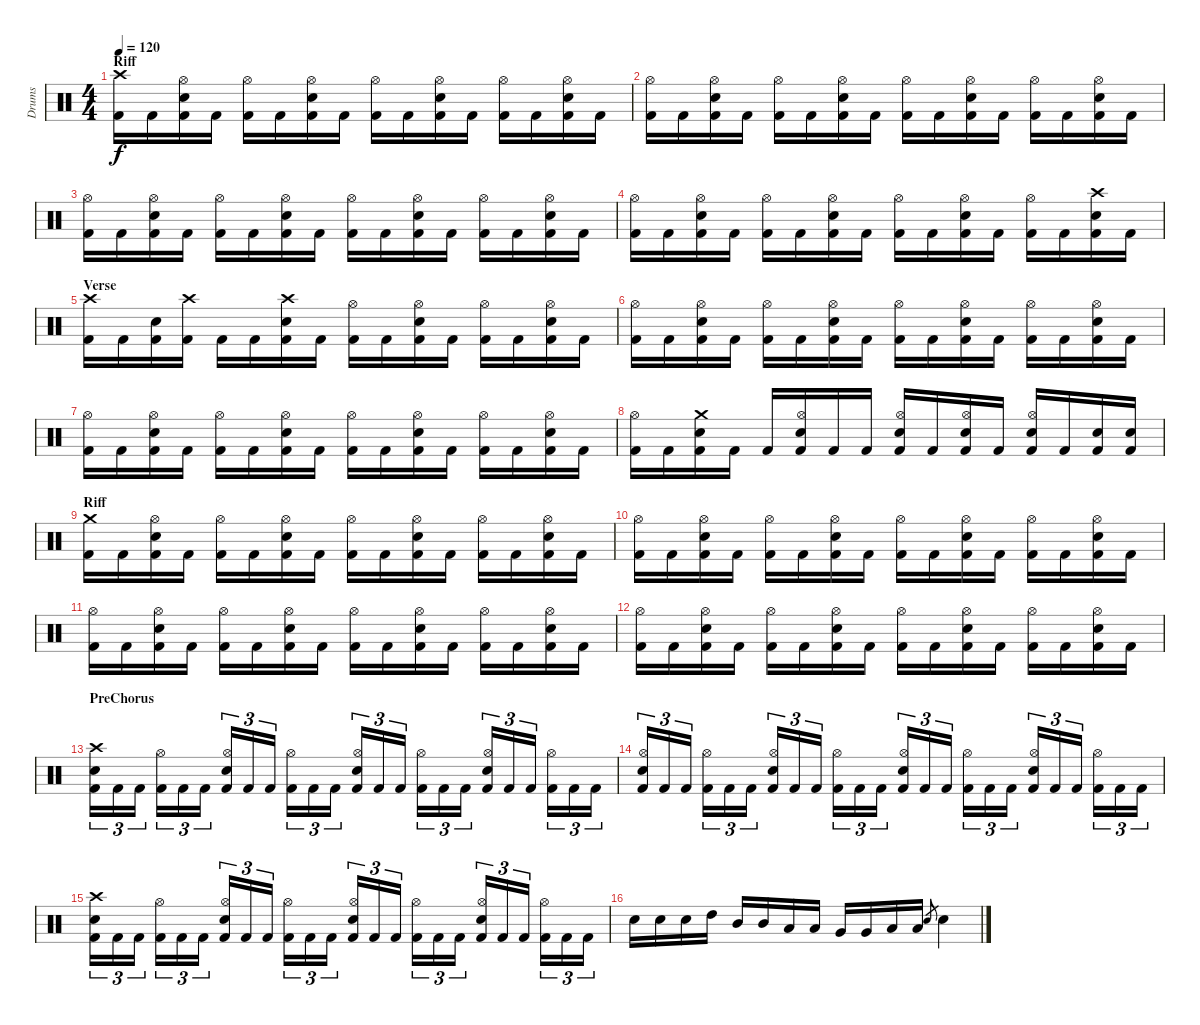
\track ("Drums" "Drums") {instrument percussion}
\staff {score}
\articulation defaults
\ts (4 4)
\section ("" "Riff")
\tempo 120
\clef neutral
\ks c
("Crash high (hit)" "Kick (hit) 2").16{dy f} "Kick (hit) 2".16 ("Hi-Hat (open)" "Snare (hit) 2" "Kick (hit) 2").16 "Kick (hit) 2".16 ("Hi-Hat (open)" "Kick (hit) 2").16 "Kick (hit) 2".16 ("Hi-Hat (open)" "Snare (hit) 2" "Kick (hit) 2").16 "Kick (hit) 2".16 ("Hi-Hat (open)" "Kick (hit) 2").16 "Kick (hit) 2".16 ("Hi-Hat (open)" "Snare (hit) 2" "Kick (hit) 2").16 "Kick (hit) 2".16 ("Hi-Hat (open)" "Kick (hit) 2").16 "Kick (hit) 2".16 ("Hi-Hat (open)" "Snare (hit) 2" "Kick (hit) 2").16 "Kick (hit) 2".16 |
("Hi-Hat (open)" "Kick (hit) 2").16 "Kick (hit) 2".16 ("Hi-Hat (open)" "Snare (hit) 2" "Kick (hit) 2").16 "Kick (hit) 2".16 ("Hi-Hat (open)" "Kick (hit) 2").16 "Kick (hit) 2".16 ("Hi-Hat (open)" "Snare (hit) 2" "Kick (hit) 2").16 "Kick (hit) 2".16 ("Hi-Hat (open)" "Kick (hit) 2").16 "Kick (hit) 2".16 ("Hi-Hat (open)" "Snare (hit) 2" "Kick (hit) 2").16 "Kick (hit) 2".16 ("Hi-Hat (open)" "Kick (hit) 2").16 "Kick (hit) 2".16 ("Hi-Hat (open)" "Snare (hit) 2" "Kick (hit) 2").16 "Kick (hit) 2".16 |
("Hi-Hat (open)" "Kick (hit) 2").16 "Kick (hit) 2".16 ("Hi-Hat (open)" "Snare (hit) 2" "Kick (hit) 2").16 "Kick (hit) 2".16 ("Hi-Hat (open)" "Kick (hit) 2").16 "Kick (hit) 2".16 ("Hi-Hat (open)" "Snare (hit) 2" "Kick (hit) 2").16 "Kick (hit) 2".16 ("Hi-Hat (open)" "Kick (hit) 2").16 "Kick (hit) 2".16 ("Hi-Hat (open)" "Snare (hit) 2" "Kick (hit) 2").16 "Kick (hit) 2".16 ("Hi-Hat (open)" "Kick (hit) 2").16 "Kick (hit) 2".16 ("Hi-Hat (open)" "Snare (hit) 2" "Kick (hit) 2").16 "Kick (hit) 2".16 |
("Hi-Hat (open)" "Kick (hit) 2").16 "Kick (hit) 2".16 ("Hi-Hat (open)" "Snare (hit) 2" "Kick (hit) 2").16 "Kick (hit) 2".16 ("Hi-Hat (open)" "Kick (hit) 2").16 "Kick (hit) 2".16 ("Hi-Hat (open)" "Snare (hit) 2" "Kick (hit) 2").16 "Kick (hit) 2".16 ("Hi-Hat (open)" "Kick (hit) 2").16 "Kick (hit) 2".16 ("Hi-Hat (open)" "Snare (hit) 2" "Kick (hit) 2").16 "Kick (hit) 2".16 ("Hi-Hat (open)" "Kick (hit) 2").16 "Kick (hit) 2".16 ("Crash high (hit)" "Snare (hit) 2" "Kick (hit) 2").16 "Kick (hit) 2".16 |
\section ("" "Verse")
("Crash high (hit)" "Kick (hit) 2").16 "Kick (hit) 2".16 ("Snare (hit) 2" "Kick (hit) 2").16 ("Crash high (hit)" "Kick (hit) 2").16 "Kick (hit) 2".16 "Kick (hit) 2".16 ("Crash high (hit)" "Snare (hit) 2" "Kick (hit) 2").16 "Kick (hit) 2".16 ("Hi-Hat (open)" "Kick (hit) 2").16 "Kick (hit) 2".16 ("Hi-Hat (open)" "Snare (hit) 2" "Kick (hit) 2").16 "Kick (hit) 2".16 ("Hi-Hat (open)" "Kick (hit) 2").16 "Kick (hit) 2".16 ("Hi-Hat (open)" "Snare (hit) 2" "Kick (hit) 2").16 "Kick (hit) 2".16 |
("Hi-Hat (open)" "Kick (hit) 2").16 "Kick (hit) 2".16 ("Hi-Hat (open)" "Snare (hit) 2" "Kick (hit) 2").16 "Kick (hit) 2".16 ("Hi-Hat (open)" "Kick (hit) 2").16 "Kick (hit) 2".16 ("Hi-Hat (open)" "Snare (hit) 2" "Kick (hit) 2").16 "Kick (hit) 2".16 ("Hi-Hat (open)" "Kick (hit) 2").16 "Kick (hit) 2".16 ("Hi-Hat (open)" "Snare (hit) 2" "Kick (hit) 2").16 "Kick (hit) 2".16 ("Hi-Hat (open)" "Kick (hit) 2").16 "Kick (hit) 2".16 ("Hi-Hat (open)" "Snare (hit) 2" "Kick (hit) 2").16 "Kick (hit) 2".16 |
("Hi-Hat (open)" "Kick (hit) 2").16 "Kick (hit) 2".16 ("Hi-Hat (open)" "Snare (hit) 2" "Kick (hit) 2").16 "Kick (hit) 2".16 ("Hi-Hat (open)" "Kick (hit) 2").16 "Kick (hit) 2".16 ("Hi-Hat (open)" "Snare (hit) 2" "Kick (hit) 2").16 "Kick (hit) 2".16 ("Hi-Hat (open)" "Kick (hit) 2").16 "Kick (hit) 2".16 ("Hi-Hat (open)" "Snare (hit) 2" "Kick (hit) 2").16 "Kick (hit) 2".16 ("Hi-Hat (open)" "Kick (hit) 2").16 "Kick (hit) 2".16 ("Hi-Hat (open)" "Snare (hit) 2" "Kick (hit) 2").16 "Kick (hit) 2".16 |
("Hi-Hat (open)" "Kick (hit) 2").16 "Kick (hit) 2".16 ("Crash medium (hit)" "Snare (hit) 2" "Kick (hit) 2").16 "Kick (hit) 2".16 "Kick (hit) 2".16 ("Hi-Hat (open)" "Snare (hit) 2" "Kick (hit) 2").16 "Kick (hit) 2".16 "Kick (hit) 2".16 ("Hi-Hat (open)" "Snare (hit) 2" "Kick (hit) 2").16 "Kick (hit) 2".16 ("Hi-Hat (open)" "Snare (hit) 2" "Kick (hit) 2").16 "Kick (hit) 2".16 ("Hi-Hat (open)" "Snare (hit) 2" "Kick (hit) 2").16 "Kick (hit) 2".16 ("Snare (hit) 2" "Kick (hit) 2").16 ("Snare (hit) 2" "Kick (hit) 2").16 |
\section ("" "Riff")
("Crash medium (hit)" "Kick (hit) 2").16 "Kick (hit) 2".16 ("Hi-Hat (open)" "Snare (hit) 2" "Kick (hit) 2").16 "Kick (hit) 2".16 ("Hi-Hat (open)" "Kick (hit) 2").16 "Kick (hit) 2".16 ("Hi-Hat (open)" "Snare (hit) 2" "Kick (hit) 2").16 "Kick (hit) 2".16 ("Hi-Hat (open)" "Kick (hit) 2").16 "Kick (hit) 2".16 ("Hi-Hat (open)" "Snare (hit) 2" "Kick (hit) 2").16 "Kick (hit) 2".16 ("Hi-Hat (open)" "Kick (hit) 2").16 "Kick (hit) 2".16 ("Hi-Hat (open)" "Snare (hit) 2" "Kick (hit) 2").16 "Kick (hit) 2".16 |
("Hi-Hat (open)" "Kick (hit) 2").16 "Kick (hit) 2".16 ("Hi-Hat (open)" "Snare (hit) 2" "Kick (hit) 2").16 "Kick (hit) 2".16 ("Hi-Hat (open)" "Kick (hit) 2").16 "Kick (hit) 2".16 ("Hi-Hat (open)" "Snare (hit) 2" "Kick (hit) 2").16 "Kick (hit) 2".16 ("Hi-Hat (open)" "Kick (hit) 2").16 "Kick (hit) 2".16 ("Hi-Hat (open)" "Snare (hit) 2" "Kick (hit) 2").16 "Kick (hit) 2".16 ("Hi-Hat (open)" "Kick (hit) 2").16 "Kick (hit) 2".16 ("Hi-Hat (open)" "Snare (hit) 2" "Kick (hit) 2").16 "Kick (hit) 2".16 |
("Hi-Hat (open)" "Kick (hit) 2").16 "Kick (hit) 2".16 ("Hi-Hat (open)" "Snare (hit) 2" "Kick (hit) 2").16 "Kick (hit) 2".16 ("Hi-Hat (open)" "Kick (hit) 2").16 "Kick (hit) 2".16 ("Hi-Hat (open)" "Snare (hit) 2" "Kick (hit) 2").16 "Kick (hit) 2".16 ("Hi-Hat (open)" "Kick (hit) 2").16 "Kick (hit) 2".16 ("Hi-Hat (open)" "Snare (hit) 2" "Kick (hit) 2").16 "Kick (hit) 2".16 ("Hi-Hat (open)" "Kick (hit) 2").16 "Kick (hit) 2".16 ("Hi-Hat (open)" "Snare (hit) 2" "Kick (hit) 2").16 "Kick (hit) 2".16 |
("Hi-Hat (open)" "Kick (hit) 2").16 "Kick (hit) 2".16 ("Hi-Hat (open)" "Snare (hit) 2" "Kick (hit) 2").16 "Kick (hit) 2".16 ("Hi-Hat (open)" "Kick (hit) 2").16 "Kick (hit) 2".16 ("Hi-Hat (open)" "Snare (hit) 2" "Kick (hit) 2").16 "Kick (hit) 2".16 ("Hi-Hat (open)" "Kick (hit) 2").16 "Kick (hit) 2".16 ("Hi-Hat (open)" "Snare (hit) 2" "Kick (hit) 2").16 "Kick (hit) 2".16 ("Hi-Hat (open)" "Kick (hit) 2").16 "Kick (hit) 2".16 ("Hi-Hat (open)" "Snare (hit) 2" "Kick (hit) 2").16 "Kick (hit) 2".16 |
\section ("" "PreChorus")
("Crash high (hit)" "Snare (hit) 2" "Kick (hit) 2").16{tu (3 2)} "Kick (hit) 2".16{tu (3 2)} "Kick (hit) 2".16{tu (3 2)} ("Hi-Hat (open)" "Kick (hit) 2").16{tu (3 2)} "Kick (hit) 2".16{tu (3 2)} "Kick (hit) 2".16{tu (3 2)} ("Hi-Hat (open)" "Snare (hit) 2" "Kick (hit) 2").16{tu (3 2)} "Kick (hit) 2".16{tu (3 2)} "Kick (hit) 2".16{tu (3 2)} ("Hi-Hat (open)" "Kick (hit) 2").16{tu (3 2)} "Kick (hit) 2".16{tu (3 2)} "Kick (hit) 2".16{tu (3 2)} ("Hi-Hat (open)" "Snare (hit) 2" "Kick (hit) 2").16{tu (3 2)} "Kick (hit) 2".16{tu (3 2)} "Kick (hit) 2".16{tu (3 2)} ("Hi-Hat (open)" "Kick (hit) 2").16{tu (3 2)} "Kick (hit) 2".16{tu (3 2)} "Kick (hit) 2".16{tu (3 2)} ("Hi-Hat (open)" "Snare (hit) 2" "Kick (hit) 2").16{tu (3 2)} "Kick (hit) 2".16{tu (3 2)} "Kick (hit) 2".16{tu (3 2)} ("Hi-Hat (open)" "Kick (hit) 2").16{tu (3 2)} "Kick (hit) 2".16{tu (3 2)} "Kick (hit) 2".16{tu (3 2)} |
("Hi-Hat (open)" "Snare (hit) 2" "Kick (hit) 2").16{tu (3 2)} "Kick (hit) 2".16{tu (3 2)} "Kick (hit) 2".16{tu (3 2)} ("Hi-Hat (open)" "Kick (hit) 2").16{tu (3 2)} "Kick (hit) 2".16{tu (3 2)} "Kick (hit) 2".16{tu (3 2)} ("Hi-Hat (open)" "Snare (hit) 2" "Kick (hit) 2").16{tu (3 2)} "Kick (hit) 2".16{tu (3 2)} "Kick (hit) 2".16{tu (3 2)} ("Hi-Hat (open)" "Kick (hit) 2").16{tu (3 2)} "Kick (hit) 2".16{tu (3 2)} "Kick (hit) 2".16{tu (3 2)} ("Hi-Hat (open)" "Snare (hit) 2" "Kick (hit) 2").16{tu (3 2)} "Kick (hit) 2".16{tu (3 2)} "Kick (hit) 2".16{tu (3 2)} ("Hi-Hat (open)" "Kick (hit) 2").16{tu (3 2)} "Kick (hit) 2".16{tu (3 2)} "Kick (hit) 2".16{tu (3 2)} ("Hi-Hat (open)" "Snare (hit) 2" "Kick (hit) 2").16{tu (3 2)} "Kick (hit) 2".16{tu (3 2)} "Kick (hit) 2".16{tu (3 2)} ("Hi-Hat (open)" "Kick (hit) 2").16{tu (3 2)} "Kick (hit) 2".16{tu (3 2)} "Kick (hit) 2".16{tu (3 2)} |
("Crash high (hit)" "Snare (hit) 2" "Kick (hit) 2").16{tu (3 2)} "Kick (hit) 2".16{tu (3 2)} "Kick (hit) 2".16{tu (3 2)} ("Hi-Hat (open)" "Kick (hit) 2").16{tu (3 2)} "Kick (hit) 2".16{tu (3 2)} "Kick (hit) 2".16{tu (3 2)} ("Hi-Hat (open)" "Snare (hit) 2" "Kick (hit) 2").16{tu (3 2)} "Kick (hit) 2".16{tu (3 2)} "Kick (hit) 2".16{tu (3 2)} ("Hi-Hat (open)" "Kick (hit) 2").16{tu (3 2)} "Kick (hit) 2".16{tu (3 2)} "Kick (hit) 2".16{tu (3 2)} ("Hi-Hat (open)" "Snare (hit) 2" "Kick (hit) 2").16{tu (3 2)} "Kick (hit) 2".16{tu (3 2)} "Kick (hit) 2".16{tu (3 2)} ("Hi-Hat (open)" "Kick (hit) 2").16{tu (3 2)} "Kick (hit) 2".16{tu (3 2)} "Kick (hit) 2".16{tu (3 2)} ("Hi-Hat (open)" "Snare (hit) 2" "Kick (hit) 2").16{tu (3 2)} "Kick (hit) 2".16{tu (3 2)} "Kick (hit) 2".16{tu (3 2)} ("Hi-Hat (open)" "Kick (hit) 2").16{tu (3 2)} "Kick (hit) 2".16{tu (3 2)} "Kick (hit) 2".16{tu (3 2)} |
"Snare (hit) 2".16 "Snare (hit) 2".16 "Snare (hit) 2".16 "High Tom (hit)".16 "Mid Tom (hit)".16 "Mid Tom (hit)".16 "Low Tom (hit)".16 "Low Tom (hit)".16 "Very Low Tom (hit)".16 "Very Low Tom (hit)".16 "Low Floor Tom (hit)".16 "Low Floor Tom (hit)".16 "Snare (hit) 2".8{gr} "Snare (hit) 2".4
